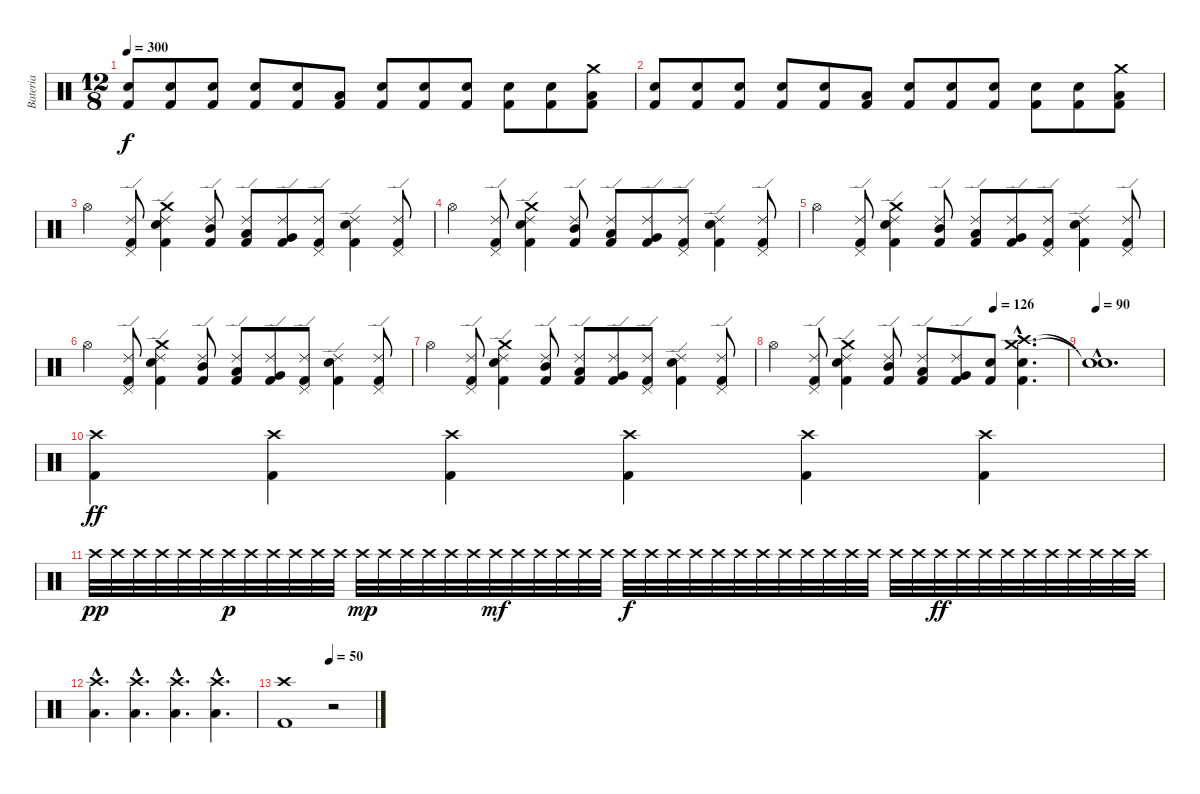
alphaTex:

\track ("Bateria" "Bateria") {instrument percussion}
\staff {score}
\articulation defaults
\ts (12 8)
\tempo 300
\clef neutral
\ks c
("Snare (hit) 2" "Kick (hit) 2").8{dy f} ("Snare (hit) 2" "Kick (hit) 2").8 ("Snare (hit) 2" "Kick (hit) 2").8 ("Snare (hit) 2" "Kick (hit) 2").8 ("Snare (hit) 2" "Kick (hit) 2").8 ("Low Tom (hit)" "Kick (hit) 2").8 ("Snare (hit) 2" "Kick (hit) 2").8 ("Snare (hit) 2" "Kick (hit) 2").8 ("Snare (hit) 2" "Kick (hit) 2").8 ("Snare (hit) 2" "Kick (hit) 2").8 ("Snare (hit) 2" "Kick (hit) 2").8 ("Crash medium (hit)" "Low Tom (hit)" "Kick (hit) 2").8 |
("Snare (hit) 2" "Kick (hit) 2").8 ("Snare (hit) 2" "Kick (hit) 2").8 ("Snare (hit) 2" "Kick (hit) 2").8 ("Snare (hit) 2" "Kick (hit) 2").8 ("Snare (hit) 2" "Kick (hit) 2").8 ("Low Tom (hit)" "Kick (hit) 2").8 ("Snare (hit) 2" "Kick (hit) 2").8 ("Snare (hit) 2" "Kick (hit) 2").8 ("Snare (hit) 2" "Kick (hit) 2").8 ("Snare (hit) 2" "Kick (hit) 2").8 ("Snare (hit) 2" "Kick (hit) 2").8 ("Crash medium (hit)" "Low Tom (hit)" "Kick (hit) 2").8 |
"Hi-Hat (open)".4 ("Ride (edge) 2" "Pedal Hi-Hat (hit)" "Kick (hit) 2").8 ("Ride (edge) 2" "Crash medium (hit)" "Snare (hit) 2" "Kick (hit) 2").4 ("Ride (edge) 2" "Mid Tom (hit)" "Kick (hit) 2").8 ("Ride (edge) 2" "Low Tom (hit)" "Kick (hit) 2").8 ("Ride (edge) 2" "Very Low Tom (hit)" "Kick (hit) 2").8 ("Ride (edge) 2" "Pedal Hi-Hat (hit)" "Kick (hit) 2").8 ("Ride (edge) 2" "Snare (hit) 2" "Kick (hit) 2").4 ("Ride (edge) 2" "Pedal Hi-Hat (hit)" "Kick (hit) 2").8 |
"Hi-Hat (open)".4 ("Ride (edge) 2" "Pedal Hi-Hat (hit)" "Kick (hit) 2").8 ("Ride (edge) 2" "Crash medium (hit)" "Snare (hit) 2" "Kick (hit) 2").4 ("Ride (edge) 2" "Mid Tom (hit)" "Kick (hit) 2").8 ("Ride (edge) 2" "Low Tom (hit)" "Kick (hit) 2").8 ("Ride (edge) 2" "Very Low Tom (hit)" "Kick (hit) 2").8 ("Ride (edge) 2" "Pedal Hi-Hat (hit)" "Kick (hit) 2").8 ("Ride (edge) 2" "Snare (hit) 2" "Kick (hit) 2").4 ("Ride (edge) 2" "Pedal Hi-Hat (hit)" "Kick (hit) 2").8 |
"Hi-Hat (open)".4 ("Ride (edge) 2" "Pedal Hi-Hat (hit)" "Kick (hit) 2").8 ("Ride (edge) 2" "Crash medium (hit)" "Snare (hit) 2" "Kick (hit) 2").4 ("Ride (edge) 2" "Mid Tom (hit)" "Kick (hit) 2").8 ("Ride (edge) 2" "Low Tom (hit)" "Kick (hit) 2").8 ("Ride (edge) 2" "Very Low Tom (hit)" "Kick (hit) 2").8 ("Ride (edge) 2" "Pedal Hi-Hat (hit)" "Kick (hit) 2").8 ("Ride (edge) 2" "Snare (hit) 2" "Kick (hit) 2").4 ("Ride (edge) 2" "Pedal Hi-Hat (hit)" "Kick (hit) 2").8 |
"Hi-Hat (open)".4 ("Ride (edge) 2" "Pedal Hi-Hat (hit)" "Kick (hit) 2").8 ("Ride (edge) 2" "Crash medium (hit)" "Snare (hit) 2" "Kick (hit) 2").4 ("Ride (edge) 2" "Mid Tom (hit)" "Kick (hit) 2").8 ("Ride (edge) 2" "Low Tom (hit)" "Kick (hit) 2").8 ("Ride (edge) 2" "Very Low Tom (hit)" "Kick (hit) 2").8 ("Ride (edge) 2" "Pedal Hi-Hat (hit)" "Kick (hit) 2").8 ("Ride (edge) 2" "Snare (hit) 2" "Kick (hit) 2").4 ("Ride (edge) 2" "Pedal Hi-Hat (hit)" "Kick (hit) 2").8 |
"Hi-Hat (open)".4 ("Ride (edge) 2" "Pedal Hi-Hat (hit)" "Kick (hit) 2").8 ("Ride (edge) 2" "Crash medium (hit)" "Snare (hit) 2" "Kick (hit) 2").4 ("Ride (edge) 2" "Mid Tom (hit)" "Kick (hit) 2").8 ("Ride (edge) 2" "Low Tom (hit)" "Kick (hit) 2").8 ("Ride (edge) 2" "Very Low Tom (hit)" "Kick (hit) 2").8 ("Ride (edge) 2" "Pedal Hi-Hat (hit)" "Kick (hit) 2").8 ("Ride (edge) 2" "Snare (hit) 2" "Kick (hit) 2").4 ("Ride (edge) 2" "Pedal Hi-Hat (hit)" "Kick (hit) 2").8 |
\tempo (126 0.75)
"Hi-Hat (open)".4 ("Ride (edge) 2" "Pedal Hi-Hat (hit)" "Kick (hit) 2").8 ("Ride (edge) 2" "Crash medium (hit)" "Snare (hit) 2" "Kick (hit) 2").4 ("Ride (edge) 2" "Mid Tom (hit)" "Kick (hit) 2").8 ("Ride (edge) 2" "Low Tom (hit)" "Kick (hit) 2").8 ("Ride (edge) 2" "Very Low Tom (hit)" "Kick (hit) 2").8 ("Snare (hit) 2" "Kick (hit) 2").8 ("Crash medium (hit)"{hac} "Crash high (hit)"{hac} "Snare (hit) 2"{hac} "Kick (hit) 2"{hac}).4{d} |
\tempo 90
("Snare (hit)"{hac t} "Snare (hit)"{hac t}).1{d} |
("Kick (hit) 2" "Crash high (hit)").4{dy ff} ("Kick (hit) 2" "Crash high (hit)").4 ("Kick (hit) 2" "Crash high (hit)").4 ("Kick (hit) 2" "Crash high (hit)").4 ("Kick (hit) 2" "Crash high (hit)").4 ("Kick (hit) 2" "Crash high (hit)").4 |
"Crash high (hit)".32{dy pp volume 16} "Crash high (hit)".32{volume 16} "Crash high (hit)".32{volume 16} "Crash high (hit)".32{volume 16} "Crash high (hit)".32{volume 16} "Crash high (hit)".32{volume 16} "Crash high (hit)".32{dy p volume 16} "Crash high (hit)".32{volume 16} "Crash high (hit)".32{volume 16} "Crash high (hit)".32{volume 16} "Crash high (hit)".32{volume 16} "Crash high (hit)".32{volume 16} "Crash high (hit)".32{dy mp volume 16} "Crash high (hit)".32{volume 16} "Crash high (hit)".32{volume 16} "Crash high (hit)".32{volume 16} "Crash high (hit)".32{volume 16} "Crash high (hit)".32{volume 16} "Crash high (hit)".32{dy mf volume 16} "Crash high (hit)".32{volume 16} "Crash high (hit)".32{volume 16} "Crash high (hit)".32{volume 16} "Crash high (hit)".32{volume 16} "Crash high (hit)".32{volume 16} "Crash high (hit)".32{dy f volume 16} "Crash high (hit)".32{volume 16} "Crash high (hit)".32{volume 16} "Crash high (hit)".32{volume 16} "Crash high (hit)".32{volume 16} "Crash high (hit)".32{volume 16} "Crash high (hit)".32{volume 16} "Crash high (hit)".32{volume 16} "Crash high (hit)".32{volume 16} "Crash high (hit)".32{volume 16} "Crash high (hit)".32{volume 16} "Crash high (hit)".32{volume 16} "Crash high (hit)".32{volume 16} "Crash high (hit)".32{volume 16} "Crash high (hit)".32{dy ff volume 16} "Crash high (hit)".32{volume 16} "Crash high (hit)".32{volume 16} "Crash high (hit)".32{volume 16} "Crash high (hit)".32{volume 16} "Crash high (hit)".32{volume 16} "Crash high (hit)".32{volume 16} "Crash high (hit)".32{volume 16} "Crash high (hit)".32{volume 16} "Crash high (hit)".32{volume 16} |
("Low Tom (hit)"{hac} "Crash high (hit)"{hac}).4{d} ("Low Tom (hit)"{hac} "Crash high (hit)"{hac}).4{d} ("Low Tom (hit)"{hac} "Crash high (hit)"{hac}).4{d} ("Low Tom (hit)"{hac} "Crash high (hit)"{hac}).4{d} |
\tempo (50 0.5)
("Kick (hit) 2" "Crash high (hit)").1{volume 16} r.2
